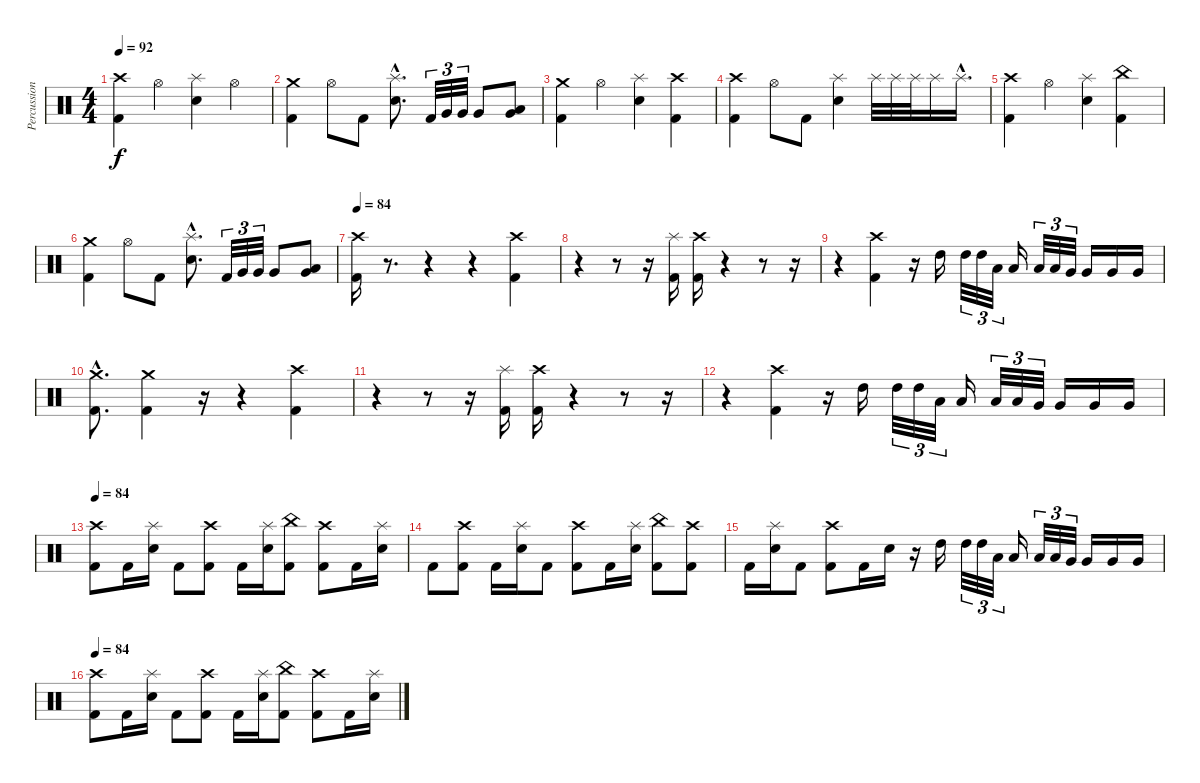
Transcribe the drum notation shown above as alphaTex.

\track ("Percussion" "Percussion") {instrument percussion}
\staff {score}
\articulation defaults
\ts (4 4)
\tempo 92
\clef neutral
\ks c
("Crash high (hit)" "Kick (hit) 2").4{dy f} "Hi-Hat (open)".4 ("Splash (hit)" "Electric Snare (hit)").4 "Hi-Hat (open)".4 |
("Crash medium (hit)" "Kick (hit) 2").4 "Hi-Hat (open)".8 "Kick (hit) 2".8 ("Splash (hit)"{hac} "Electric Snare (hit)"{hac}).8{d} "Kick (hit) 2".32{tu (3 2)} "Very Low Tom (hit)".32{tu (3 2)} "Very Low Tom (hit)".32{tu (3 2)} "Very Low Tom (hit)".8 ("Low Tom (hit)" "Very Low Tom (hit)").8 |
("Crash medium (hit)" "Kick (hit) 2").4 "Hi-Hat (open)".4 ("Splash (hit)" "Electric Snare (hit)").4 ("Kick (hit) 2" "Crash high (hit)").4 |
("Crash high (hit)" "Kick (hit) 2").4 "Hi-Hat (open)".8 "Kick (hit) 2".8 ("Splash (hit)" "Electric Snare (hit)").4 "Splash (hit)".32 "Splash (hit)".32 "Splash (hit)".32 "Splash (hit)".16 "Splash (hit)"{hac}.16{d} |
("Crash high (hit)" "Kick (hit) 2").4 "Hi-Hat (open)".4 ("Splash (hit)" "Electric Snare (hit)").4 ("China (hit)" "Kick (hit) 2").4 |
("Crash medium (hit)" "Kick (hit) 2").4 "Hi-Hat (open)".8 "Kick (hit) 2".8 ("Splash (hit)"{hac} "Electric Snare (hit)"{hac}).8{d} "Kick (hit) 2".32{tu (3 2)} "Very Low Tom (hit)".32{tu (3 2)} "Very Low Tom (hit)".32{tu (3 2)} "Very Low Tom (hit)".8 ("Low Tom (hit)" "Very Low Tom (hit)").8 |
\tempo 84
("Kick (hit) 2" "Crash high (hit)").16 r.8{d} r.4 r.4 ("Kick (hit) 2" "Crash high (hit)").4 |
r.4 r.8 r.16 ("Kick (hit) 2" "Splash (hit)").16 ("Kick (hit) 2" "Crash high (hit)").16 r.4 r.8 r.16 |
r.4 ("Crash high (hit)" "Kick (hit) 2").4 r.16 "High Tom (hit)".16 "High Tom (hit)".32{tu (3 2)} "High Tom (hit)".32{tu (3 2)} "Low Tom (hit)".32{tu (3 2)} "Low Tom (hit)".16 "Low Tom (hit)".32{tu (3 2)} "Low Tom (hit)".32{tu (3 2)} "Very Low Tom (hit)".32{tu (3 2)} "Very Low Tom (hit)".16 "Very Low Tom (hit)".16 "Very Low Tom (hit)".16 |
("Crash medium (hit)"{hac} "Kick (hit) 2"{hac}).8{d} ("Crash medium (hit)" "Kick (hit) 2").4 r.16 r.4 ("Kick (hit) 2" "Crash high (hit)").4 |
r.4 r.8 r.16 ("Kick (hit) 2" "Splash (hit)").16 ("Kick (hit) 2" "Crash high (hit)").16 r.4 r.8 r.16 |
r.4 ("Crash high (hit)" "Kick (hit) 2").4 r.16 "High Tom (hit)".16 "High Tom (hit)".32{tu (3 2)} "High Tom (hit)".32{tu (3 2)} "Low Tom (hit)".32{tu (3 2)} "Low Tom (hit)".16 "Low Tom (hit)".32{tu (3 2)} "Low Tom (hit)".32{tu (3 2)} "Very Low Tom (hit)".32{tu (3 2)} "Very Low Tom (hit)".16 "Very Low Tom (hit)".16 "Very Low Tom (hit)".16 |
\tempo 84
("Crash high (hit)" "Kick (hit) 2").8 "Kick (hit) 2".16 ("Splash (hit)" "Electric Snare (hit)").16 "Kick (hit) 2".8 ("Crash high (hit)" "Kick (hit) 2").8 "Kick (hit) 2".16 ("Splash (hit)" "Electric Snare (hit)").16 ("China (hit)" "Kick (hit) 2").8 ("Crash high (hit)" "Kick (hit) 2").8 "Kick (hit) 2".16 ("Splash (hit)" "Electric Snare (hit)").16 |
"Kick (hit) 2".8 ("Crash high (hit)" "Kick (hit) 2").8 "Kick (hit) 2".16 ("Splash (hit)" "Electric Snare (hit)").16 "Kick (hit) 2".8 ("Crash high (hit)" "Kick (hit) 2").8 "Kick (hit) 2".16 ("Splash (hit)" "Electric Snare (hit)").16 ("China (hit)" "Kick (hit) 2").8 ("Crash high (hit)" "Kick (hit) 2").8 |
"Kick (hit) 2".16 ("Splash (hit)" "Electric Snare (hit)").16 "Kick (hit) 2".8 ("Crash high (hit)" "Kick (hit) 2").8 "Kick (hit) 2".16 "Electric Snare (hit)".16 r.16 "High Tom (hit)".16 "High Tom (hit)".32{tu (3 2)} "High Tom (hit)".32{tu (3 2)} "Low Tom (hit)".32{tu (3 2)} "Low Tom (hit)".16 "Low Tom (hit)".32{tu (3 2)} "Low Tom (hit)".32{tu (3 2)} "Very Low Tom (hit)".32{tu (3 2)} "Very Low Tom (hit)".16 "Very Low Tom (hit)".16 "Very Low Tom (hit)".16 |
\tempo 84
("Crash high (hit)" "Kick (hit) 2").8 "Kick (hit) 2".16 ("Splash (hit)" "Electric Snare (hit)").16 "Kick (hit) 2".8 ("Crash high (hit)" "Kick (hit) 2").8 "Kick (hit) 2".16 ("Splash (hit)" "Electric Snare (hit)").16 ("China (hit)" "Kick (hit) 2").8 ("Crash high (hit)" "Kick (hit) 2").8 "Kick (hit) 2".16 ("Splash (hit)" "Electric Snare (hit)").16
